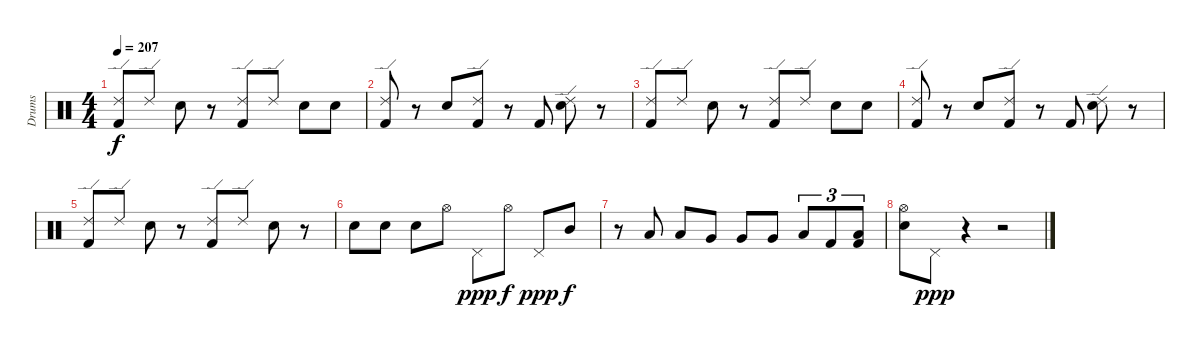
\track ("Drums" "Drums") {instrument percussion}
\staff {score}
\articulation defaults
\ts (4 4)
\tempo 207
\clef neutral
\ks c
("Ride (edge) 2" "Kick (hit) 2").8{dy f} "Ride (edge) 2".8 "Snare (hit) 2".8 r.8 ("Ride (edge) 2" "Kick (hit) 2").8 "Ride (edge) 2".8 "Snare (hit) 2".8 "Snare (hit) 2".8 |
("Ride (edge) 2" "Kick (hit) 2").8 r.8 "Snare (hit) 2".8 ("Ride (edge) 2" "Kick (hit) 2").8 r.8 "Kick (hit) 2".8 ("Ride (edge) 2" "Snare (hit) 2").8 r.8 |
("Ride (edge) 2" "Kick (hit) 2").8 "Ride (edge) 2".8 "Snare (hit) 2".8 r.8 ("Ride (edge) 2" "Kick (hit) 2").8 "Ride (edge) 2".8 "Snare (hit) 2".8 "Snare (hit) 2".8 |
("Ride (edge) 2" "Kick (hit) 2").8 r.8 "Snare (hit) 2".8 ("Ride (edge) 2" "Kick (hit) 2").8 r.8 "Kick (hit) 2".8 ("Ride (edge) 2" "Snare (hit) 2").8 r.8 |
("Ride (edge) 2" "Kick (hit) 2").8 "Ride (edge) 2".8 "Snare (hit) 2".8 r.8 ("Ride (edge) 2" "Kick (hit) 2").8 "Ride (edge) 2".8 "Snare (hit) 2".8 r.8 |
"Snare (hit) 2".8 "Snare (hit) 2".8 "Snare (hit) 2".8 "Hi-Hat (open)".8 "Pedal Hi-Hat (hit)".8{dy ppp} "Hi-Hat (open)".8{dy f} "Pedal Hi-Hat (hit)".8{dy ppp} "Mid Tom (hit)".8{dy f} |
r.8 "Low Tom (hit)".8 "Low Tom (hit)".8 "Very Low Tom (hit)".8 "Very Low Tom (hit)".8 "Very Low Tom (hit)".8 "Low Floor Tom (hit)".8{tu (3 2)} "Kick (hit) 2".8{tu (3 2)} ("Low Floor Tom (hit)" "Kick (hit) 2").8{tu (3 2)} |
("Hi-Hat (open)" "Snare (hit) 2").8 "Pedal Hi-Hat (hit)".8{dy ppp} r.4 r.2
